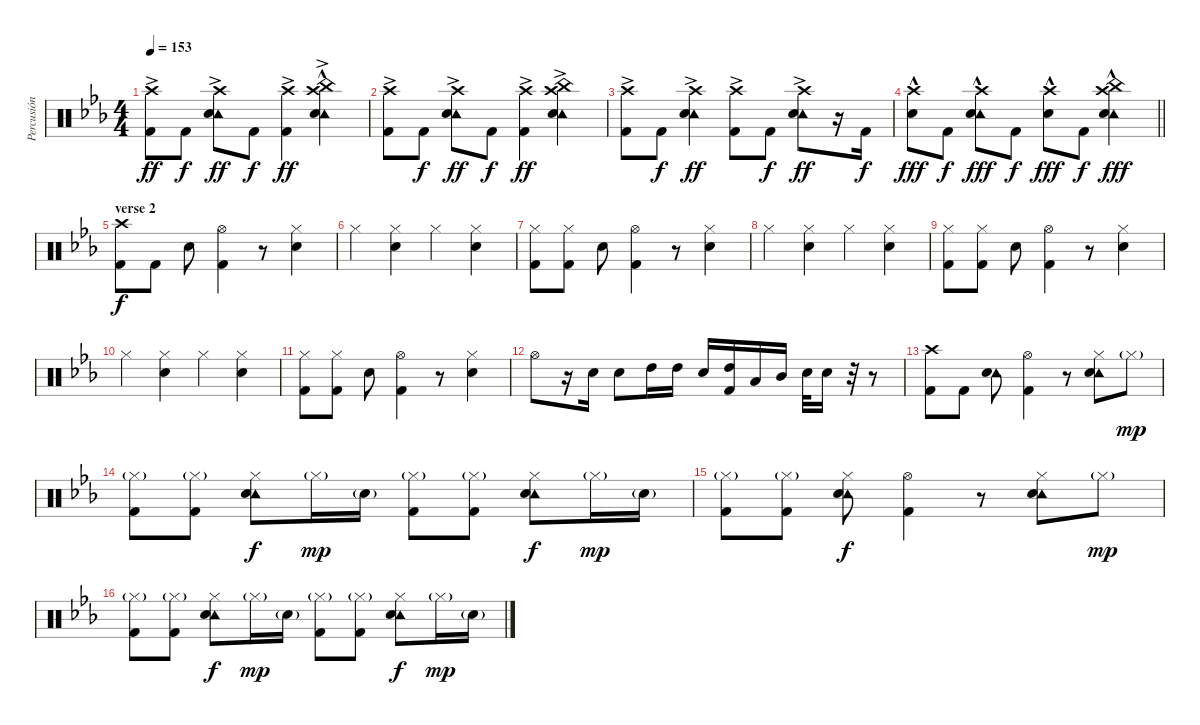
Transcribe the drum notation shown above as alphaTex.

\track ("Percusión" "Percusión") {instrument percussion}
\staff {score}
\articulation defaults
\ts (4 4)
\tempo 153
\clef neutral
\ks eb
("Crash high (hit)"{ac} "Kick (hit) 2").8{dy ff} "Kick (hit) 2".8{dy f} ("Tambourine (hit)" "Crash high (hit)"{ac} "Snare (hit) 2").8{dy ff} "Kick (hit) 2".8{dy f} ("Crash high (hit)"{ac} "Kick (hit) 2").4{dy ff} ("Tambourine (hit)" "China (hit)"{hac} "Crash high (hit)"{ac} "Snare (hit) 2").4 |
("Crash high (hit)"{ac} "Kick (hit) 2").8 "Kick (hit) 2".8{dy f} ("Tambourine (hit)" "Crash high (hit)"{ac} "Snare (hit) 2").8{dy ff} "Kick (hit) 2".8{dy f} ("Crash high (hit)"{ac} "Kick (hit) 2").4{dy ff} ("Tambourine (hit)" "China (hit)"{ac} "Crash high (hit)"{ac} "Snare (hit) 2").4 |
("Crash high (hit)"{ac} "Kick (hit) 2").8 "Kick (hit) 2".8{dy f} ("Tambourine (hit)" "Crash high (hit)"{ac} "Snare (hit) 2").4{dy ff} ("Crash high (hit)"{ac} "Kick (hit) 2").8 "Kick (hit) 2".8{dy f} ("Tambourine (hit)" "Crash high (hit)"{ac} "Snare (hit) 2").8{dy ff} r.16 "Kick (hit) 2".16{dy f} |
\barLineRight lightlight
("Crash high (hit)"{hac} "Snare (hit) 2").8{dy fff} "Kick (hit) 2".8{dy f} ("Tambourine (hit)" "Crash high (hit)"{hac} "Snare (hit) 2").8{dy fff} "Kick (hit) 2".8{dy f} ("Crash high (hit)"{hac} "Snare (hit) 2").8{dy fff} "Kick (hit) 2".8{dy f} ("Tambourine (hit)" "China (hit)"{hac} "Crash high (hit)"{hac} "Snare (hit) 2").4{dy fff} |
\section ("" "verse 2")
("Crash high (hit)" "Kick (hit) 2").8{dy f} "Kick (hit) 2".8 "Snare (hit) 2".8 ("Hi-Hat (open)" "Kick (hit) 2").4 r.8 ("Hi-Hat (closed)" "Snare (hit) 2").4 |
"Hi-Hat (closed)".4 ("Hi-Hat (closed)" "Snare (hit) 2").4 "Hi-Hat (closed)".4 ("Hi-Hat (closed)" "Snare (hit) 2").4 |
("Hi-Hat (closed)" "Kick (hit) 2").8 ("Hi-Hat (closed)" "Kick (hit) 2").8 "Snare (hit) 2".8 ("Hi-Hat (open)" "Kick (hit) 2").4 r.8 ("Hi-Hat (closed)" "Snare (hit) 2").4 |
"Hi-Hat (closed)".4 ("Hi-Hat (closed)" "Snare (hit) 2").4 "Hi-Hat (closed)".4 ("Hi-Hat (closed)" "Snare (hit) 2").4 |
("Hi-Hat (closed)" "Kick (hit) 2").8 ("Hi-Hat (closed)" "Kick (hit) 2").8 "Snare (hit) 2".8 ("Hi-Hat (open)" "Kick (hit) 2").4 r.8 ("Hi-Hat (closed)" "Snare (hit) 2").4 |
"Hi-Hat (closed)".4 ("Hi-Hat (closed)" "Snare (hit) 2").4 "Hi-Hat (closed)".4 ("Hi-Hat (closed)" "Snare (hit) 2").4 |
("Hi-Hat (closed)" "Kick (hit) 2").8 ("Hi-Hat (closed)" "Kick (hit) 2").8 "Snare (hit) 2".8 ("Hi-Hat (open)" "Kick (hit) 2").4 r.8 ("Hi-Hat (closed)" "Snare (hit) 2").4 |
"Hi-Hat (open)".8 r.16 "Snare (hit) 2".16 "Snare (hit) 2".8 "High Tom (hit)".16 "High Tom (hit)".16 "Snare (hit) 2".16 ("High Tom (hit)" "Kick (hit) 2").16 "Low Tom (hit)".16 "Mid Tom (hit)".16 "Snare (hit) 2".32 "Snare (hit) 2".16 r.32 r.8 |
("Crash high (hit)" "Kick (hit) 2").8 "Kick (hit) 2".8 ("Tambourine (hit)" "Snare (hit) 2").8 ("Hi-Hat (open)" "Kick (hit) 2").4 r.8 ("Tambourine (hit)" "Hi-Hat (closed)" "Snare (hit) 2").8 "Hi-Hat (closed)"{g}.8{dy mp} |
("Hi-Hat (closed)"{g} "Kick (hit) 2").8 ("Hi-Hat (closed)"{g} "Kick (hit) 2").8 ("Tambourine (hit)" "Hi-Hat (closed)" "Snare (hit) 2").8{dy f} "Hi-Hat (closed)"{g}.16{dy mp} "Snare (hit) 2"{g}.16 ("Hi-Hat (closed)"{g} "Kick (hit) 2").8 ("Hi-Hat (closed)"{g} "Kick (hit) 2").8 ("Tambourine (hit)" "Hi-Hat (closed)" "Snare (hit) 2").8{dy f} "Hi-Hat (closed)"{g}.16{dy mp} "Snare (hit) 2"{g}.16 |
("Hi-Hat (closed)"{g} "Kick (hit) 2").8 ("Hi-Hat (closed)"{g} "Kick (hit) 2").8 ("Tambourine (hit)" "Hi-Hat (closed)" "Snare (hit) 2").8{dy f} ("Hi-Hat (open)" "Kick (hit) 2").4 r.8 ("Tambourine (hit)" "Hi-Hat (closed)" "Snare (hit) 2").8 "Hi-Hat (closed)"{g}.8{dy mp} |
("Hi-Hat (closed)"{g} "Kick (hit) 2").8 ("Hi-Hat (closed)"{g} "Kick (hit) 2").8 ("Tambourine (hit)" "Hi-Hat (closed)" "Snare (hit) 2").8{dy f} "Hi-Hat (closed)"{g}.16{dy mp} "Snare (hit) 2"{g}.16 ("Hi-Hat (closed)"{g} "Kick (hit) 2").8 ("Hi-Hat (closed)"{g} "Kick (hit) 2").8 ("Tambourine (hit)" "Hi-Hat (closed)" "Snare (hit) 2").8{dy f} "Hi-Hat (closed)"{g}.16{dy mp} "Snare (hit) 2"{g}.16
